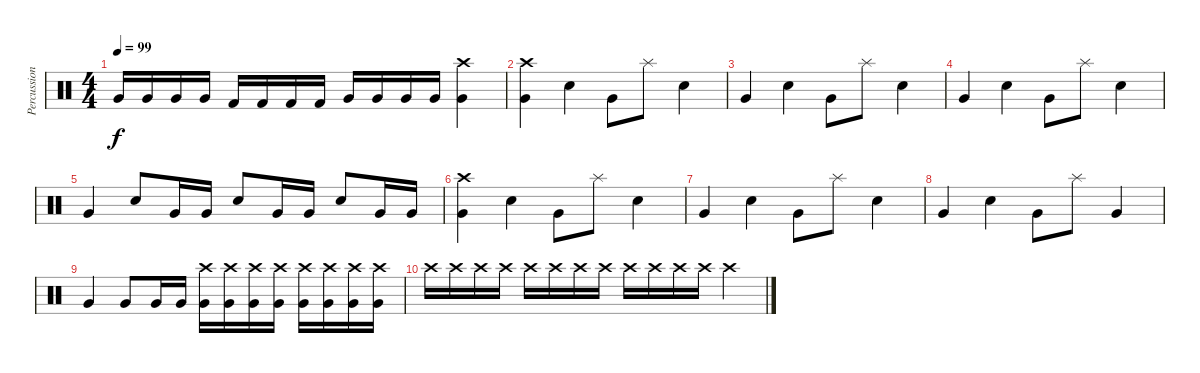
\track ("Percussion" "Percussion") {instrument percussion}
\staff {score}
\articulation defaults
\ts (4 4)
\tempo 99
\clef neutral
\ks c "Very Low Tom (hit)".16{dy f} "Very Low Tom (hit)".16 "Very Low Tom (hit)".16 "Very Low Tom (hit)".16 "Kick (hit) 2".16 "Kick (hit) 2".16 "Kick (hit) 2".16 "Kick (hit) 2".16 "Very Low Tom (hit)".16 "Very Low Tom (hit)".16 "Very Low Tom (hit)".16 "Very Low Tom (hit)".16
("Crash high (hit)" "Very Low Tom (hit)").4 |
("Crash high (hit)" "Very Low Tom (hit)").4 "Electric Snare (hit)".4 "Very Low Tom (hit)".8 "Splash (hit)".8 "Electric Snare (hit)".4 |
"Very Low Tom (hit)".4 "Electric Snare (hit)".4 "Very Low Tom (hit)".8 "Splash (hit)".8 "Electric Snare (hit)".4 |
"Very Low Tom (hit)".4 "Electric Snare (hit)".4 "Very Low Tom (hit)".8 "Splash (hit)".8 "Electric Snare (hit)".4 |
"Very Low Tom (hit)".4 "Electric Snare (hit)".8 "Very Low Tom (hit)".16 "Very Low Tom (hit)".16 "Electric Snare (hit)".8 "Very Low Tom (hit)".16 "Very Low Tom (hit)".16 "Electric Snare (hit)".8 "Very Low Tom (hit)".16 "Very Low Tom (hit)".16 |
("Crash high (hit)" "Very Low Tom (hit)").4 "Electric Snare (hit)".4 "Very Low Tom (hit)".8 "Splash (hit)".8 "Electric Snare (hit)".4 |
"Very Low Tom (hit)".4 "Electric Snare (hit)".4 "Very Low Tom (hit)".8 "Splash (hit)".8 "Electric Snare (hit)".4 |
"Very Low Tom (hit)".4 "Electric Snare (hit)".4 "Very Low Tom (hit)".8 "Splash (hit)".8 "Very Low Tom (hit)".4 |
"Very Low Tom (hit)".4 "Very Low Tom (hit)".8 "Very Low Tom (hit)".16 "Very Low Tom (hit)".16 ("Crash high (hit)" "Very Low Tom (hit)").16 ("Crash high (hit)" "Very Low Tom (hit)").16 ("Crash high (hit)" "Very Low Tom (hit)").16 ("Crash high (hit)" "Very Low Tom (hit)").16 ("Crash high (hit)" "Very Low Tom (hit)").16 ("Crash high (hit)" "Very Low Tom (hit)").16 ("Crash high (hit)" "Very Low Tom (hit)").16 ("Crash high (hit)" "Very Low Tom (hit)").16 |
"Crash high (hit)".16 "Crash high (hit)".16 "Crash high (hit)".16 "Crash high (hit)".16 "Crash high (hit)".16 "Crash high (hit)".16 "Crash high (hit)".16 "Crash high (hit)".16 "Crash high (hit)".16 "Crash high (hit)".16 "Crash high (hit)".16 "Crash high (hit)".16 "Crash high (hit)".4
